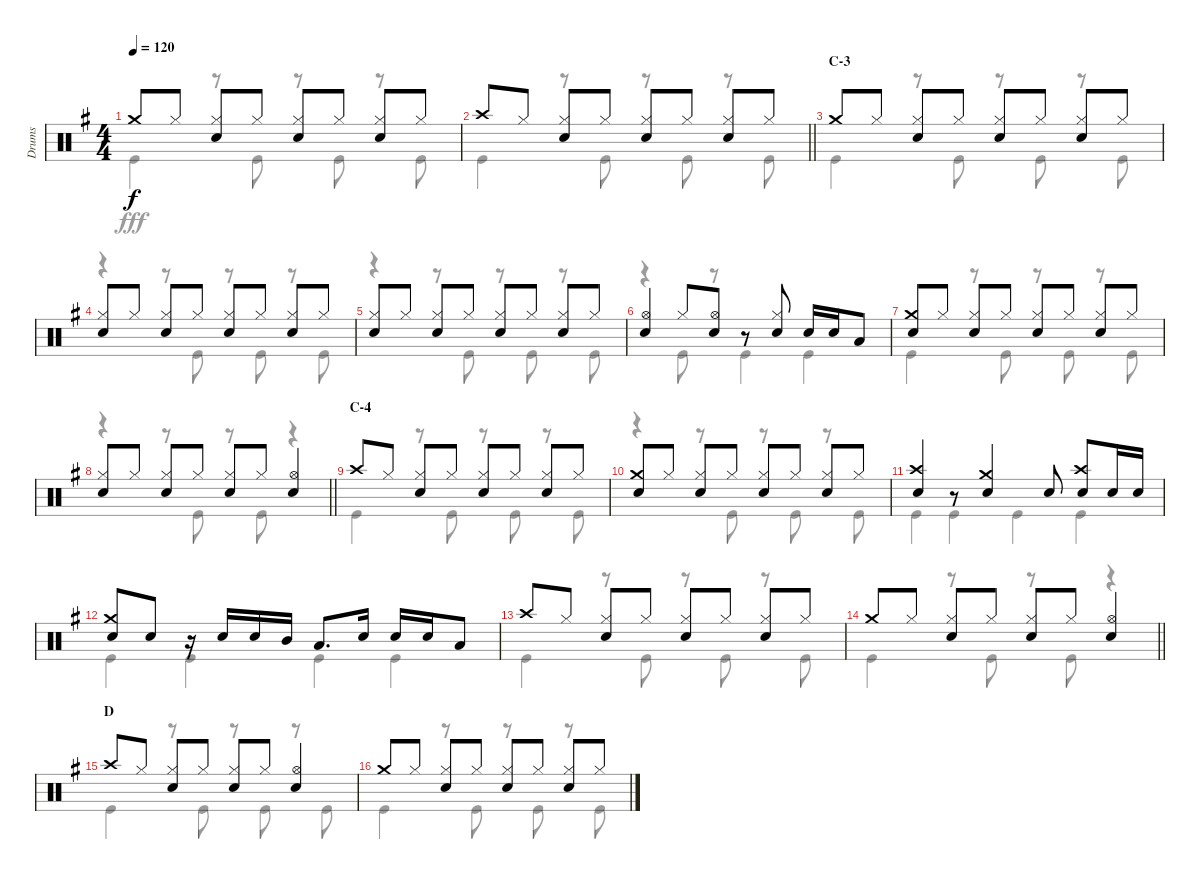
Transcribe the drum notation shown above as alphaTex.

\track ("Drums" "Drums") {instrument percussion}
\staff {score}
\articulation defaults
\voice
\ts (4 4)
\tempo 120
\clef neutral
\ks g "Crash medium (hit)".8{dy f} "Hi-Hat (closed)".8
("Hi-Hat (closed)" "Snare (hit) 2").8 "Hi-Hat (closed)".8 ("Hi-Hat (closed)" "Snare (hit) 2").8 "Hi-Hat (closed)".8 ("Hi-Hat (closed)" "Snare (hit) 2").8 "Hi-Hat (closed)".8 |
\barLineRight lightlight "Crash high (hit)".8 "Hi-Hat (closed)".8
("Hi-Hat (closed)" "Snare (hit) 2").8 "Hi-Hat (closed)".8 ("Hi-Hat (closed)" "Snare (hit) 2").8 "Hi-Hat (closed)".8 ("Hi-Hat (closed)" "Snare (hit) 2").8 "Hi-Hat (closed)".8 |
\section ("" "C-3")
"Crash medium (hit)".8 "Hi-Hat (closed)".8 ("Hi-Hat (closed)" "Snare (hit) 2").8 "Hi-Hat (closed)".8 ("Hi-Hat (closed)" "Snare (hit) 2").8 "Hi-Hat (closed)".8 ("Hi-Hat (closed)" "Snare (hit) 2").8 "Hi-Hat (closed)".8 |
("Hi-Hat (closed)" "Snare (hit) 2").8 "Hi-Hat (closed)".8 ("Hi-Hat (closed)" "Snare (hit) 2").8 "Hi-Hat (closed)".8 ("Hi-Hat (closed)" "Snare (hit) 2").8 "Hi-Hat (closed)".8 ("Hi-Hat (closed)" "Snare (hit) 2").8 "Hi-Hat (closed)".8 |
("Hi-Hat (closed)" "Snare (hit) 2").8 "Hi-Hat (closed)".8 ("Hi-Hat (closed)" "Snare (hit) 2").8 "Hi-Hat (closed)".8 ("Hi-Hat (closed)" "Snare (hit) 2").8 "Hi-Hat (closed)".8 ("Hi-Hat (closed)" "Snare (hit) 2").8 "Hi-Hat (closed)".8 |
("Hi-Hat (open)" "Snare (hit) 2").4 "Hi-Hat (closed)".8 ("Hi-Hat (open)" "Snare (hit) 2").8 r.8 ("Hi-Hat (closed)" "Snare (hit) 2").8 "Snare (hit) 2".16 "Snare (hit) 2".16 "Low Tom (hit)".8 |
("Crash medium (hit)" "Snare (hit) 2").8 "Hi-Hat (closed)".8 ("Hi-Hat (closed)" "Snare (hit) 2").8 "Hi-Hat (closed)".8 ("Hi-Hat (closed)" "Snare (hit) 2").8 "Hi-Hat (closed)".8 ("Hi-Hat (closed)" "Snare (hit) 2").8 "Hi-Hat (closed)".8 |
\barLineRight lightlight
("Hi-Hat (closed)" "Snare (hit) 2").8 "Hi-Hat (closed)".8 ("Hi-Hat (closed)" "Snare (hit) 2").8 "Hi-Hat (closed)".8 ("Hi-Hat (closed)" "Snare (hit) 2").8 "Hi-Hat (closed)".8 ("Hi-Hat (open)" "Snare (hit) 2").4 |
\section ("" "C-4")
"Crash high (hit)".8 "Hi-Hat (closed)".8 ("Hi-Hat (closed)" "Snare (hit) 2").8 "Hi-Hat (closed)".8 ("Hi-Hat (closed)" "Snare (hit) 2").8 "Hi-Hat (closed)".8 ("Hi-Hat (closed)" "Snare (hit) 2").8 "Hi-Hat (closed)".8 |
("Crash medium (hit)" "Snare (hit) 2").8 "Hi-Hat (closed)".8 ("Hi-Hat (closed)" "Snare (hit) 2").8 "Hi-Hat (closed)".8 ("Hi-Hat (closed)" "Snare (hit) 2").8 "Hi-Hat (closed)".8 ("Hi-Hat (closed)" "Snare (hit) 2").8 "Hi-Hat (closed)".8 |
("Crash high (hit)" "Snare (hit) 2").4 r.8 ("Crash medium (hit)" "Snare (hit) 2").4 "Snare (hit) 2".8 ("Crash high (hit)" "Snare (hit) 2").8 "Snare (hit) 2".16 "Snare (hit) 2".16 |
("Crash medium (hit)" "Snare (hit) 2").8 "Snare (hit) 2".8 r.16 "Snare (hit) 2".16 "Snare (hit) 2".16 "Mid Tom (hit)".16 "Low Tom (hit)".8{d} "Snare (hit) 2".16 "Snare (hit) 2".16 "Snare (hit) 2".16 "Low Tom (hit)".8 |
"Crash high (hit)".8 "Hi-Hat (closed)".8 ("Hi-Hat (closed)" "Snare (hit) 2").8 "Hi-Hat (closed)".8 ("Hi-Hat (closed)" "Snare (hit) 2").8 "Hi-Hat (closed)".8 ("Hi-Hat (closed)" "Snare (hit) 2").8 "Hi-Hat (closed)".8 |
\barLineRight lightlight "Crash medium (hit)".8 "Hi-Hat (closed)".8
("Hi-Hat (closed)" "Snare (hit) 2").8 "Hi-Hat (closed)".8 ("Hi-Hat (closed)" "Snare (hit) 2").8 "Hi-Hat (closed)".8 ("Hi-Hat (open)" "Snare (hit) 2").4 |
\section ("" "D")
"Crash high (hit)".8 "Hi-Hat (closed)".8 ("Hi-Hat (closed)" "Snare (hit) 2").8 "Hi-Hat (closed)".8 ("Hi-Hat (closed)" "Snare (hit) 2").8 "Hi-Hat (closed)".8 ("Hi-Hat (open)" "Snare (hit) 2").4 |
"Crash medium (hit)".8 "Hi-Hat (closed)".8 ("Hi-Hat (closed)" "Snare (hit) 2").8 "Hi-Hat (closed)".8 ("Hi-Hat (closed)" "Snare (hit) 2").8 "Hi-Hat (closed)".8 ("Hi-Hat (closed)" "Snare (hit) 2").8 "Hi-Hat (closed)".8
\voice
\clef neutral
\ottava regular
\simile none
\ks g "Kick (hit)".4{dy fff}
r.8 "Kick (hit)".8 r.8 "Kick (hit)".8 r.8 "Kick (hit)".8 |
\barLineRight lightlight "Kick (hit)".4
r.8 "Kick (hit)".8 r.8 "Kick (hit)".8 r.8 "Kick (hit)".8 |
"Kick (hit)".4 r.8 "Kick (hit)".8 r.8 "Kick (hit)".8 r.8 "Kick (hit)".8 |
r.4 r.8 "Kick (hit)".8 r.8 "Kick (hit)".8 r.8 "Kick (hit)".8 |
r.4 r.8 "Kick (hit)".8 r.8 "Kick (hit)".8 r.8 "Kick (hit)".8 |
r.4 "Kick (hit)".8 r.8 "Kick (hit)".4 "Kick (hit)".4 |
"Kick (hit)".4 r.8 "Kick (hit)".8 r.8 "Kick (hit)".8 r.8 "Kick (hit)".8 |
\barLineRight lightlight
r.4 r.8 "Kick (hit)".8 r.8 "Kick (hit)".8 r.4 |
"Kick (hit)".4 r.8 "Kick (hit)".8 r.8 "Kick (hit)".8 r.8 "Kick (hit)".8 |
r.4 r.8 "Kick (hit)".8 r.8 "Kick (hit)".8 r.8 "Kick (hit)".8 |
"Kick (hit)".4 "Kick (hit)".4 "Kick (hit)".4 "Kick (hit)".4 |
"Kick (hit)".4 "Kick (hit)".4 "Kick (hit)".4 "Kick (hit)".4 |
"Kick (hit)".4 r.8 "Kick (hit)".8 r.8 "Kick (hit)".8 r.8 "Kick (hit)".8 |
\barLineRight lightlight "Kick (hit)".4
r.8 "Kick (hit)".8 r.8 "Kick (hit)".8 r.4 |
"Kick (hit)".4 r.8 "Kick (hit)".8 r.8 "Kick (hit)".8 r.8 "Kick (hit)".8 |
"Kick (hit)".4 r.8 "Kick (hit)".8 r.8 "Kick (hit)".8 r.8 "Kick (hit)".8
